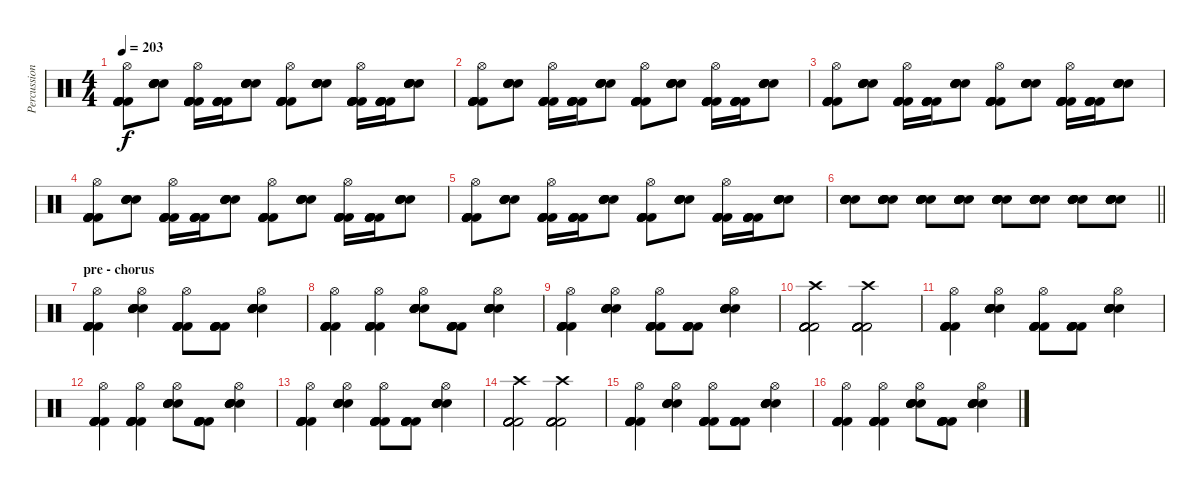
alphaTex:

\track ("Percussion" "Percussion") {instrument percussion}
\staff {score}
\articulation defaults
\ts (4 4)
\tempo 203
\clef neutral
\ks c
("Kick (hit) 2" "Kick (hit) 2" "Kick (hit) 2" "Kick (hit) 2" "Kick (hit) 2" "Hi-Hat (open)").8{dy f} ("Electric Snare (hit)" "Electric Snare (hit)" "Electric Snare (hit)" "Electric Snare (hit)" "Electric Snare (hit)").8 ("Kick (hit) 2" "Kick (hit) 2" "Kick (hit) 2" "Kick (hit) 2" "Kick (hit) 2" "Hi-Hat (open)").16 ("Kick (hit) 2" "Kick (hit) 2" "Kick (hit) 2" "Kick (hit) 2" "Kick (hit) 2").16 ("Electric Snare (hit)" "Electric Snare (hit)" "Electric Snare (hit)" "Electric Snare (hit)" "Electric Snare (hit)").8 ("Kick (hit) 2" "Kick (hit) 2" "Kick (hit) 2" "Kick (hit) 2" "Kick (hit) 2" "Hi-Hat (open)").8 ("Electric Snare (hit)" "Electric Snare (hit)" "Electric Snare (hit)" "Electric Snare (hit)" "Electric Snare (hit)").8 ("Kick (hit) 2" "Kick (hit) 2" "Kick (hit) 2" "Kick (hit) 2" "Kick (hit) 2" "Hi-Hat (open)").16 ("Kick (hit) 2" "Kick (hit) 2" "Kick (hit) 2" "Kick (hit) 2" "Kick (hit) 2").16 ("Electric Snare (hit)" "Electric Snare (hit)" "Electric Snare (hit)" "Electric Snare (hit)" "Electric Snare (hit)").8 |
("Kick (hit) 2" "Kick (hit) 2" "Kick (hit) 2" "Kick (hit) 2" "Kick (hit) 2" "Hi-Hat (open)").8 ("Electric Snare (hit)" "Electric Snare (hit)" "Electric Snare (hit)" "Electric Snare (hit)" "Electric Snare (hit)").8 ("Kick (hit) 2" "Kick (hit) 2" "Kick (hit) 2" "Kick (hit) 2" "Kick (hit) 2" "Hi-Hat (open)").16 ("Kick (hit) 2" "Kick (hit) 2" "Kick (hit) 2" "Kick (hit) 2" "Kick (hit) 2").16 ("Electric Snare (hit)" "Electric Snare (hit)" "Electric Snare (hit)" "Electric Snare (hit)" "Electric Snare (hit)").8 ("Kick (hit) 2" "Kick (hit) 2" "Kick (hit) 2" "Kick (hit) 2" "Kick (hit) 2" "Hi-Hat (open)").8 ("Electric Snare (hit)" "Electric Snare (hit)" "Electric Snare (hit)" "Electric Snare (hit)" "Electric Snare (hit)").8 ("Kick (hit) 2" "Kick (hit) 2" "Kick (hit) 2" "Kick (hit) 2" "Kick (hit) 2" "Hi-Hat (open)").16 ("Kick (hit) 2" "Kick (hit) 2" "Kick (hit) 2" "Kick (hit) 2" "Kick (hit) 2").16 ("Electric Snare (hit)" "Electric Snare (hit)" "Electric Snare (hit)" "Electric Snare (hit)" "Electric Snare (hit)").8 |
("Kick (hit) 2" "Kick (hit) 2" "Kick (hit) 2" "Kick (hit) 2" "Kick (hit) 2" "Hi-Hat (open)").8 ("Electric Snare (hit)" "Electric Snare (hit)" "Electric Snare (hit)" "Electric Snare (hit)" "Electric Snare (hit)").8 ("Kick (hit) 2" "Kick (hit) 2" "Kick (hit) 2" "Kick (hit) 2" "Kick (hit) 2" "Hi-Hat (open)").16 ("Kick (hit) 2" "Kick (hit) 2" "Kick (hit) 2" "Kick (hit) 2" "Kick (hit) 2").16 ("Electric Snare (hit)" "Electric Snare (hit)" "Electric Snare (hit)" "Electric Snare (hit)" "Electric Snare (hit)").8 ("Kick (hit) 2" "Kick (hit) 2" "Kick (hit) 2" "Kick (hit) 2" "Kick (hit) 2" "Hi-Hat (open)").8 ("Electric Snare (hit)" "Electric Snare (hit)" "Electric Snare (hit)" "Electric Snare (hit)" "Electric Snare (hit)").8 ("Kick (hit) 2" "Kick (hit) 2" "Kick (hit) 2" "Kick (hit) 2" "Kick (hit) 2" "Hi-Hat (open)").16 ("Kick (hit) 2" "Kick (hit) 2" "Kick (hit) 2" "Kick (hit) 2" "Kick (hit) 2").16 ("Electric Snare (hit)" "Electric Snare (hit)" "Electric Snare (hit)" "Electric Snare (hit)" "Electric Snare (hit)").8 |
("Kick (hit) 2" "Kick (hit) 2" "Kick (hit) 2" "Kick (hit) 2" "Kick (hit) 2" "Hi-Hat (open)").8 ("Electric Snare (hit)" "Electric Snare (hit)" "Electric Snare (hit)" "Electric Snare (hit)" "Electric Snare (hit)").8 ("Kick (hit) 2" "Kick (hit) 2" "Kick (hit) 2" "Kick (hit) 2" "Kick (hit) 2" "Hi-Hat (open)").16 ("Kick (hit) 2" "Kick (hit) 2" "Kick (hit) 2" "Kick (hit) 2" "Kick (hit) 2").16 ("Electric Snare (hit)" "Electric Snare (hit)" "Electric Snare (hit)" "Electric Snare (hit)" "Electric Snare (hit)").8 ("Kick (hit) 2" "Kick (hit) 2" "Kick (hit) 2" "Kick (hit) 2" "Kick (hit) 2" "Hi-Hat (open)").8 ("Electric Snare (hit)" "Electric Snare (hit)" "Electric Snare (hit)" "Electric Snare (hit)" "Electric Snare (hit)").8 ("Kick (hit) 2" "Kick (hit) 2" "Kick (hit) 2" "Kick (hit) 2" "Kick (hit) 2" "Hi-Hat (open)").16 ("Kick (hit) 2" "Kick (hit) 2" "Kick (hit) 2" "Kick (hit) 2" "Kick (hit) 2").16 ("Electric Snare (hit)" "Electric Snare (hit)" "Electric Snare (hit)" "Electric Snare (hit)" "Electric Snare (hit)").8 |
("Kick (hit) 2" "Kick (hit) 2" "Kick (hit) 2" "Kick (hit) 2" "Kick (hit) 2" "Hi-Hat (open)").8 ("Electric Snare (hit)" "Electric Snare (hit)" "Electric Snare (hit)" "Electric Snare (hit)" "Electric Snare (hit)").8 ("Kick (hit) 2" "Kick (hit) 2" "Kick (hit) 2" "Kick (hit) 2" "Kick (hit) 2" "Hi-Hat (open)").16 ("Kick (hit) 2" "Kick (hit) 2" "Kick (hit) 2" "Kick (hit) 2" "Kick (hit) 2").16 ("Electric Snare (hit)" "Electric Snare (hit)" "Electric Snare (hit)" "Electric Snare (hit)" "Electric Snare (hit)").8 ("Kick (hit) 2" "Kick (hit) 2" "Kick (hit) 2" "Kick (hit) 2" "Kick (hit) 2" "Hi-Hat (open)").8 ("Electric Snare (hit)" "Electric Snare (hit)" "Electric Snare (hit)" "Electric Snare (hit)" "Electric Snare (hit)").8 ("Kick (hit) 2" "Kick (hit) 2" "Kick (hit) 2" "Kick (hit) 2" "Kick (hit) 2" "Hi-Hat (open)").16 ("Kick (hit) 2" "Kick (hit) 2" "Kick (hit) 2" "Kick (hit) 2" "Kick (hit) 2").16 ("Electric Snare (hit)" "Electric Snare (hit)" "Electric Snare (hit)" "Electric Snare (hit)" "Electric Snare (hit)").8 |
\barLineRight lightlight
("Electric Snare (hit)" "Electric Snare (hit)" "Electric Snare (hit)" "Electric Snare (hit)" "Electric Snare (hit)" "Electric Snare (hit)").8 ("Snare (hit) 2" "Snare (hit) 2" "Snare (hit) 2" "Snare (hit) 2" "Snare (hit) 2" "Snare (hit) 2").8 ("Electric Snare (hit)" "Electric Snare (hit)" "Electric Snare (hit)" "Electric Snare (hit)" "Electric Snare (hit)" "Electric Snare (hit)").8 ("Snare (hit) 2" "Snare (hit) 2" "Snare (hit) 2" "Snare (hit) 2" "Snare (hit) 2" "Snare (hit) 2").8 ("Electric Snare (hit)" "Electric Snare (hit)" "Electric Snare (hit)" "Electric Snare (hit)" "Electric Snare (hit)" "Electric Snare (hit)").8 ("Snare (hit) 2" "Snare (hit) 2" "Snare (hit) 2" "Snare (hit) 2" "Snare (hit) 2" "Snare (hit) 2").8 ("Electric Snare (hit)" "Electric Snare (hit)" "Electric Snare (hit)" "Electric Snare (hit)" "Electric Snare (hit)" "Electric Snare (hit)").8 ("Snare (hit) 2" "Snare (hit) 2" "Snare (hit) 2" "Snare (hit) 2" "Snare (hit) 2" "Snare (hit) 2").8 |
\section ("" "pre - chorus")
("Kick (hit) 2" "Kick (hit) 2" "Kick (hit) 2" "Kick (hit) 2" "Kick (hit) 2" "Hi-Hat (open)").4 ("Electric Snare (hit)" "Electric Snare (hit)" "Electric Snare (hit)" "Electric Snare (hit)" "Electric Snare (hit)" "Hi-Hat (open)").4 ("Kick (hit) 2" "Kick (hit) 2" "Kick (hit) 2" "Kick (hit) 2" "Kick (hit) 2" "Hi-Hat (open)").8 ("Kick (hit) 2" "Kick (hit) 2" "Kick (hit) 2" "Kick (hit) 2" "Kick (hit) 2").8 ("Electric Snare (hit)" "Electric Snare (hit)" "Electric Snare (hit)" "Electric Snare (hit)" "Electric Snare (hit)" "Hi-Hat (open)").4 |
("Kick (hit) 2" "Kick (hit) 2" "Kick (hit) 2" "Kick (hit) 2" "Kick (hit) 2" "Hi-Hat (open)").4 ("Kick (hit) 2" "Kick (hit) 2" "Kick (hit) 2" "Kick (hit) 2" "Kick (hit) 2" "Hi-Hat (open)").4 ("Electric Snare (hit)" "Electric Snare (hit)" "Electric Snare (hit)" "Electric Snare (hit)" "Electric Snare (hit)" "Hi-Hat (open)").8 ("Kick (hit) 2" "Kick (hit) 2" "Kick (hit) 2" "Kick (hit) 2" "Kick (hit) 2").8 ("Electric Snare (hit)" "Electric Snare (hit)" "Electric Snare (hit)" "Electric Snare (hit)" "Electric Snare (hit)" "Hi-Hat (open)").4 |
("Kick (hit) 2" "Kick (hit) 2" "Kick (hit) 2" "Kick (hit) 2" "Kick (hit) 2" "Hi-Hat (open)").4 ("Electric Snare (hit)" "Electric Snare (hit)" "Electric Snare (hit)" "Electric Snare (hit)" "Electric Snare (hit)" "Hi-Hat (open)").4 ("Kick (hit) 2" "Kick (hit) 2" "Kick (hit) 2" "Kick (hit) 2" "Kick (hit) 2" "Hi-Hat (open)").8 ("Kick (hit) 2" "Kick (hit) 2" "Kick (hit) 2" "Kick (hit) 2" "Kick (hit) 2").8 ("Electric Snare (hit)" "Electric Snare (hit)" "Electric Snare (hit)" "Electric Snare (hit)" "Electric Snare (hit)" "Hi-Hat (open)").4 |
("Kick (hit) 2" "Kick (hit) 2" "Kick (hit) 2" "Kick (hit) 2" "Kick (hit) 2" "Crash high (hit)").2 ("Kick (hit) 2" "Kick (hit) 2" "Kick (hit) 2" "Kick (hit) 2" "Kick (hit) 2" "Crash high (hit)").2 |
("Kick (hit) 2" "Kick (hit) 2" "Kick (hit) 2" "Kick (hit) 2" "Kick (hit) 2" "Hi-Hat (open)").4 ("Electric Snare (hit)" "Electric Snare (hit)" "Electric Snare (hit)" "Electric Snare (hit)" "Electric Snare (hit)" "Hi-Hat (open)").4 ("Kick (hit) 2" "Kick (hit) 2" "Kick (hit) 2" "Kick (hit) 2" "Kick (hit) 2" "Hi-Hat (open)").8 ("Kick (hit) 2" "Kick (hit) 2" "Kick (hit) 2" "Kick (hit) 2" "Kick (hit) 2").8 ("Electric Snare (hit)" "Electric Snare (hit)" "Electric Snare (hit)" "Electric Snare (hit)" "Electric Snare (hit)" "Hi-Hat (open)").4 |
("Kick (hit) 2" "Kick (hit) 2" "Kick (hit) 2" "Kick (hit) 2" "Kick (hit) 2" "Hi-Hat (open)").4 ("Kick (hit) 2" "Kick (hit) 2" "Kick (hit) 2" "Kick (hit) 2" "Kick (hit) 2" "Hi-Hat (open)").4 ("Electric Snare (hit)" "Electric Snare (hit)" "Electric Snare (hit)" "Electric Snare (hit)" "Electric Snare (hit)" "Hi-Hat (open)").8 ("Kick (hit) 2" "Kick (hit) 2" "Kick (hit) 2" "Kick (hit) 2" "Kick (hit) 2").8 ("Electric Snare (hit)" "Electric Snare (hit)" "Electric Snare (hit)" "Electric Snare (hit)" "Electric Snare (hit)" "Hi-Hat (open)").4 |
("Kick (hit) 2" "Kick (hit) 2" "Kick (hit) 2" "Kick (hit) 2" "Kick (hit) 2" "Hi-Hat (open)").4 ("Electric Snare (hit)" "Electric Snare (hit)" "Electric Snare (hit)" "Electric Snare (hit)" "Electric Snare (hit)" "Hi-Hat (open)").4 ("Kick (hit) 2" "Kick (hit) 2" "Kick (hit) 2" "Kick (hit) 2" "Kick (hit) 2" "Hi-Hat (open)").8 ("Kick (hit) 2" "Kick (hit) 2" "Kick (hit) 2" "Kick (hit) 2" "Kick (hit) 2").8 ("Electric Snare (hit)" "Electric Snare (hit)" "Electric Snare (hit)" "Electric Snare (hit)" "Electric Snare (hit)" "Hi-Hat (open)").4 |
("Kick (hit) 2" "Kick (hit) 2" "Kick (hit) 2" "Kick (hit) 2" "Kick (hit) 2" "Crash high (hit)").2 ("Kick (hit) 2" "Kick (hit) 2" "Kick (hit) 2" "Kick (hit) 2" "Kick (hit) 2" "Crash high (hit)").2 |
("Kick (hit) 2" "Kick (hit) 2" "Kick (hit) 2" "Kick (hit) 2" "Kick (hit) 2" "Hi-Hat (open)").4 ("Electric Snare (hit)" "Electric Snare (hit)" "Electric Snare (hit)" "Electric Snare (hit)" "Electric Snare (hit)" "Hi-Hat (open)").4 ("Kick (hit) 2" "Kick (hit) 2" "Kick (hit) 2" "Kick (hit) 2" "Kick (hit) 2" "Hi-Hat (open)").8 ("Kick (hit) 2" "Kick (hit) 2" "Kick (hit) 2" "Kick (hit) 2" "Kick (hit) 2").8 ("Electric Snare (hit)" "Electric Snare (hit)" "Electric Snare (hit)" "Electric Snare (hit)" "Electric Snare (hit)" "Hi-Hat (open)").4 |
("Kick (hit) 2" "Kick (hit) 2" "Kick (hit) 2" "Kick (hit) 2" "Kick (hit) 2" "Hi-Hat (open)").4 ("Kick (hit) 2" "Kick (hit) 2" "Kick (hit) 2" "Kick (hit) 2" "Kick (hit) 2" "Hi-Hat (open)").4 ("Electric Snare (hit)" "Electric Snare (hit)" "Electric Snare (hit)" "Electric Snare (hit)" "Electric Snare (hit)" "Hi-Hat (open)").8 ("Kick (hit) 2" "Kick (hit) 2" "Kick (hit) 2" "Kick (hit) 2" "Kick (hit) 2").8 ("Electric Snare (hit)" "Electric Snare (hit)" "Electric Snare (hit)" "Electric Snare (hit)" "Electric Snare (hit)" "Hi-Hat (open)").4
